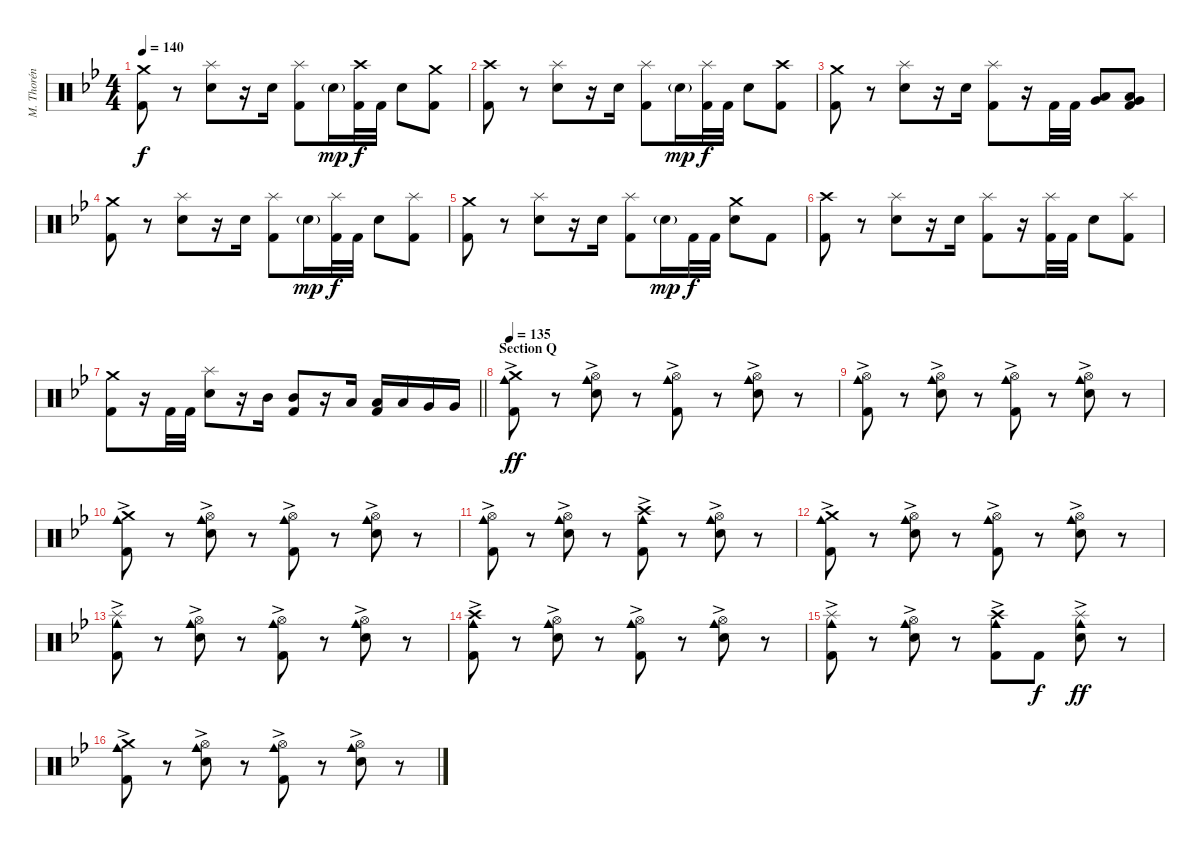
\track ("M. Thorén (Drums)" "M. Thorén ") {instrument percussion}
\staff {score}
\articulation defaults
\ts (4 4)
\tempo 140
\clef neutral
\ks gminor
("Crash medium (hit)" "Kick (hit) 2").8{dy f} r.8 ("Splash (hit)" "Electric Snare (hit)").8 r.16 "Electric Snare (hit)".16 ("Splash (hit)" "Kick (hit) 2").8 "Electric Snare (hit)"{g}.16{dy mp} ("Crash high (hit)" "Kick (hit) 2").32{dy f} "Kick (hit) 2".32 "Electric Snare (hit)".8 ("Crash medium (hit)" "Kick (hit) 2").8 |
("Crash high (hit)" "Kick (hit) 2").8 r.8 ("Splash (hit)" "Electric Snare (hit)").8 r.16 "Electric Snare (hit)".16 ("Splash (hit)" "Kick (hit) 2").8 "Electric Snare (hit)"{g}.16{dy mp} ("Splash (hit)" "Kick (hit) 2").32{dy f} "Kick (hit) 2".32 "Electric Snare (hit)".8 ("Crash high (hit)" "Kick (hit) 2").8 |
("Crash medium (hit)" "Kick (hit) 2").8 r.8 ("Splash (hit)" "Electric Snare (hit)").8 r.16 "Electric Snare (hit)".16 ("Splash (hit)" "Kick (hit) 2").8 r.16 "Kick (hit) 2".32 "Kick (hit) 2".32 ("Low Tom (hit)" "Very Low Tom (hit)").8 ("Very Low Tom (hit)" "Low Floor Tom (hit)" "Kick (hit) 2").8 |
("Crash medium (hit)" "Kick (hit) 2").8 r.8 ("Splash (hit)" "Electric Snare (hit)").8 r.16 "Electric Snare (hit)".16 ("Splash (hit)" "Kick (hit) 2").8 "Electric Snare (hit)"{g}.16{dy mp} ("Splash (hit)" "Kick (hit) 2").32{dy f} "Kick (hit) 2".32 "Electric Snare (hit)".8 ("Splash (hit)" "Kick (hit) 2").8 |
("Crash medium (hit)" "Kick (hit) 2").8 r.8 ("Splash (hit)" "Electric Snare (hit)").8 r.16 "Electric Snare (hit)".16 ("Splash (hit)" "Kick (hit) 2").8 "Electric Snare (hit)"{g}.16{dy mp} "Kick (hit) 2".32{dy f} "Kick (hit) 2".32 ("Crash medium (hit)" "Electric Snare (hit)").8 "Kick (hit) 2".8 |
("Crash high (hit)" "Kick (hit) 2").8 r.8 ("Splash (hit)" "Electric Snare (hit)").8 r.16 "Electric Snare (hit)".16 ("Splash (hit)" "Kick (hit) 2").8 r.16 ("Splash (hit)" "Kick (hit) 2").32 "Kick (hit) 2".32 "Electric Snare (hit)".8 ("Splash (hit)" "Kick (hit) 2").8 |
\barLineRight lightlight
("Crash medium (hit)" "Kick (hit) 2").8 r.16 "Kick (hit) 2".32 "Kick (hit) 2".32 ("Splash (hit)" "Electric Snare (hit)").8 r.16 "Mid Tom (hit)".16 ("Mid Tom (hit)" "Kick (hit) 2").8 r.16 "Low Tom (hit)".16 ("Low Tom (hit)" "Kick (hit) 2").16 "Low Tom (hit)".16 "Very Low Tom (hit)".16 "Very Low Tom (hit)".16 |
\section ("" "Section Q")
\tempo 135
("Cowbell medium (hit)"{ac} "Crash medium (hit)" "Kick (hit) 2").8{dy ff} r.8 ("Cowbell medium (hit)"{ac} "Hi-Hat (open)" "Electric Snare (hit)").8 r.8 ("Cowbell medium (hit)"{ac} "Hi-Hat (open)" "Kick (hit) 2").8 r.8 ("Cowbell medium (hit)"{ac} "Hi-Hat (open)" "Electric Snare (hit)").8 r.8 |
("Cowbell medium (hit)"{ac} "Hi-Hat (open)" "Kick (hit) 2").8 r.8 ("Cowbell medium (hit)"{ac} "Hi-Hat (open)" "Electric Snare (hit)").8 r.8 ("Cowbell medium (hit)"{ac} "Hi-Hat (open)" "Kick (hit) 2").8 r.8 ("Cowbell medium (hit)"{ac} "Hi-Hat (open)" "Electric Snare (hit)").8 r.8 |
("Cowbell medium (hit)"{ac} "Crash medium (hit)" "Kick (hit) 2").8 r.8 ("Cowbell medium (hit)"{ac} "Hi-Hat (open)" "Electric Snare (hit)").8 r.8 ("Cowbell medium (hit)"{ac} "Hi-Hat (open)" "Kick (hit) 2").8 r.8 ("Cowbell medium (hit)"{ac} "Hi-Hat (open)" "Electric Snare (hit)").8 r.8 |
("Cowbell medium (hit)"{ac} "Hi-Hat (open)" "Kick (hit) 2").8 r.8 ("Cowbell medium (hit)"{ac} "Hi-Hat (open)" "Electric Snare (hit)").8 r.8 ("Cowbell medium (hit)"{ac} "Crash high (hit)" "Kick (hit) 2").8 r.8 ("Cowbell medium (hit)"{ac} "Hi-Hat (open)" "Electric Snare (hit)").8 r.8 |
("Cowbell medium (hit)"{ac} "Crash medium (hit)" "Kick (hit) 2").8 r.8 ("Cowbell medium (hit)"{ac} "Hi-Hat (open)" "Electric Snare (hit)").8 r.8 ("Cowbell medium (hit)"{ac} "Hi-Hat (open)" "Kick (hit) 2").8 r.8 ("Cowbell medium (hit)"{ac} "Hi-Hat (open)" "Electric Snare (hit)").8 r.8 |
("Cowbell medium (hit)"{ac} "Splash (hit)" "Kick (hit) 2").8 r.8 ("Cowbell medium (hit)"{ac} "Hi-Hat (open)" "Electric Snare (hit)").8 r.8 ("Cowbell medium (hit)"{ac} "Hi-Hat (open)" "Kick (hit) 2").8 r.8 ("Cowbell medium (hit)"{ac} "Hi-Hat (open)" "Electric Snare (hit)").8 r.8 |
("Cowbell medium (hit)"{ac} "Crash high (hit)" "Kick (hit) 2").8 r.8 ("Cowbell medium (hit)"{ac} "Hi-Hat (open)" "Electric Snare (hit)").8 r.8 ("Cowbell medium (hit)"{ac} "Hi-Hat (open)" "Kick (hit) 2").8 r.8 ("Cowbell medium (hit)"{ac} "Hi-Hat (open)" "Electric Snare (hit)").8 r.8 |
("Cowbell medium (hit)"{ac} "Splash (hit)" "Kick (hit) 2").8 r.8 ("Cowbell medium (hit)"{ac} "Hi-Hat (open)" "Electric Snare (hit)").8 r.8 ("Cowbell medium (hit)"{ac} "Crash high (hit)" "Kick (hit) 2").8 "Kick (hit) 2".8{dy f} ("Cowbell medium (hit)"{ac} "Splash (hit)" "Electric Snare (hit)").8{dy ff} r.8 |
("Cowbell medium (hit)"{ac} "Crash medium (hit)" "Kick (hit) 2").8 r.8 ("Cowbell medium (hit)"{ac} "Hi-Hat (open)" "Electric Snare (hit)").8 r.8 ("Cowbell medium (hit)"{ac} "Hi-Hat (open)" "Kick (hit) 2").8 r.8 ("Cowbell medium (hit)"{ac} "Hi-Hat (open)" "Electric Snare (hit)").8 r.8
